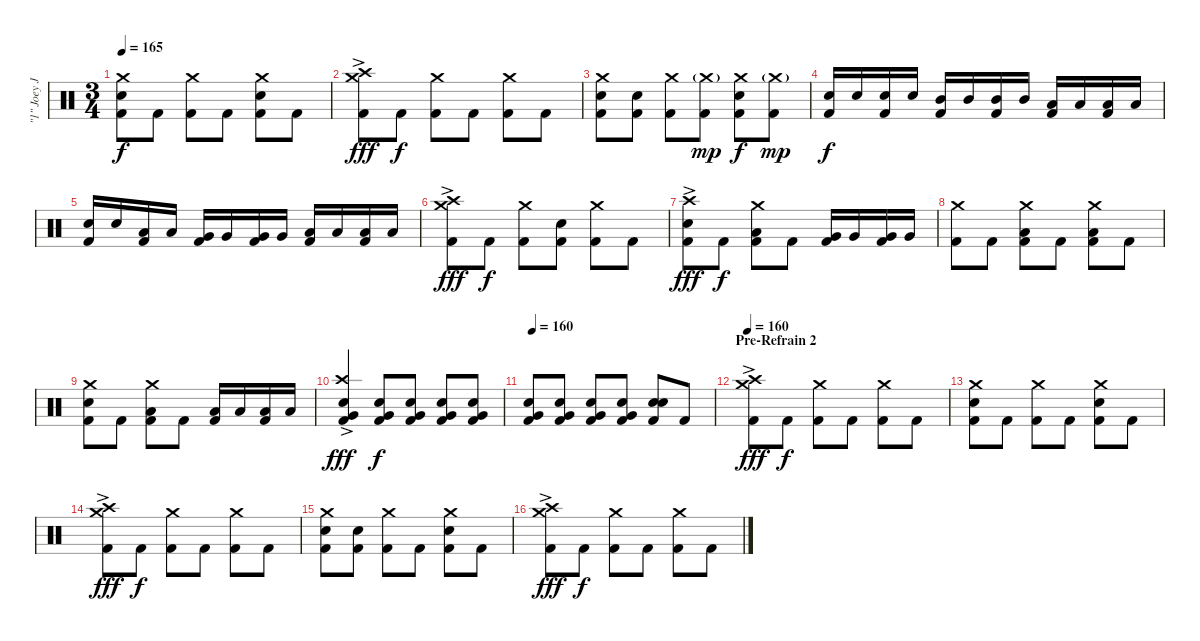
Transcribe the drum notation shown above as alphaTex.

\track ("\"1\" Joey Jordison (Drums)" "\"1\" Joey J") {instrument percussion}
\staff {score}
\articulation defaults
\ts (3 4)
\tempo 165
\clef neutral
\ks c
("Crash medium (hit)" "Electric Snare (hit)" "Kick (hit) 2").8{dy f} "Kick (hit) 2".8 ("Crash medium (hit)" "Kick (hit) 2").8 "Kick (hit) 2".8 ("Crash medium (hit)" "Electric Snare (hit)" "Kick (hit) 2").8 "Kick (hit) 2".8 |
("Crash high (hit)"{ac} "Crash medium (hit)" "Kick (hit) 2").8{dy fff} "Kick (hit) 2".8{dy f} ("Crash medium (hit)" "Kick (hit) 2").8 "Kick (hit) 2".8 ("Crash medium (hit)" "Kick (hit) 2").8 "Kick (hit) 2".8 |
("Crash medium (hit)" "Electric Snare (hit)" "Kick (hit) 2").8 ("Electric Snare (hit)" "Kick (hit) 2").8 ("Crash medium (hit)" "Kick (hit) 2").8 ("Crash medium (hit)"{g} "Kick (hit) 2").8{dy mp} ("Crash medium (hit)" "Electric Snare (hit)" "Kick (hit) 2").8{dy f} ("Crash medium (hit)"{g} "Kick (hit) 2").8{dy mp} |
("Electric Snare (hit)" "Kick (hit) 2").16{dy f} "Electric Snare (hit)".16 ("Electric Snare (hit)" "Kick (hit) 2").16 "Electric Snare (hit)".16 ("Mid Tom (hit)" "Kick (hit) 2").16 "Mid Tom (hit)".16 ("Mid Tom (hit)" "Kick (hit) 2").16 "Mid Tom (hit)".16 ("Low Tom (hit)" "Kick (hit) 2").16 "Low Tom (hit)".16 ("Low Tom (hit)" "Kick (hit) 2").16 "Low Tom (hit)".16 |
("Electric Snare (hit)" "Kick (hit) 2").16 "Electric Snare (hit)".16 ("Low Tom (hit)" "Kick (hit) 2").16 "Low Tom (hit)".16 ("Very Low Tom (hit)" "Kick (hit) 2").16 "Very Low Tom (hit)".16 ("Very Low Tom (hit)" "Kick (hit) 2").16 "Very Low Tom (hit)".16 ("Low Floor Tom (hit)" "Kick (hit) 2").16 "Low Floor Tom (hit)".16 ("Low Floor Tom (hit)" "Kick (hit) 2").16 "Low Floor Tom (hit)".16 |
("Crash high (hit)"{ac} "Crash medium (hit)" "Kick (hit) 2").8{dy fff} "Kick (hit) 2".8{dy f} ("Crash medium (hit)" "Kick (hit) 2").8 ("Electric Snare (hit)" "Kick (hit) 2").8 ("Crash medium (hit)" "Kick (hit) 2").8 "Kick (hit) 2".8 |
("Crash high (hit)"{ac} "Electric Snare (hit)" "Kick (hit) 2").8{dy fff} "Kick (hit) 2".8{dy f} ("Crash medium (hit)" "Low Tom (hit)" "Kick (hit) 2").8 "Kick (hit) 2".8 ("Very Low Tom (hit)" "Kick (hit) 2").16 "Very Low Tom (hit)".16 ("Very Low Tom (hit)" "Kick (hit) 2").16 "Very Low Tom (hit)".16 |
("Crash medium (hit)" "Kick (hit) 2").8 "Kick (hit) 2".8 ("Crash medium (hit)" "Low Floor Tom (hit)" "Kick (hit) 2").8 "Kick (hit) 2".8 ("Crash medium (hit)" "Low Floor Tom (hit)" "Kick (hit) 2").8 "Kick (hit) 2".8 |
("Crash medium (hit)" "Electric Snare (hit)" "Kick (hit) 2").8 "Kick (hit) 2".8 ("Crash medium (hit)" "Low Floor Tom (hit)" "Kick (hit) 2").8 "Kick (hit) 2".8 ("Low Floor Tom (hit)" "Kick (hit) 2").16 "Low Floor Tom (hit)".16 ("Low Floor Tom (hit)" "Kick (hit) 2").16 "Low Floor Tom (hit)".16 |
("Crash high (hit)"{ac} "Electric Snare (hit)" "Very Low Tom (hit)" "Kick (hit) 2").4{dy fff} ("Electric Snare (hit)" "Very Low Tom (hit)" "Kick (hit) 2").8{dy f} ("Electric Snare (hit)" "Very Low Tom (hit)" "Kick (hit) 2").8 ("Electric Snare (hit)" "Very Low Tom (hit)" "Kick (hit) 2").8 ("Electric Snare (hit)" "Very Low Tom (hit)" "Kick (hit) 2").8 |
\tempo 160
("Electric Snare (hit)" "Very Low Tom (hit)" "Kick (hit) 2").8 ("Electric Snare (hit)" "Very Low Tom (hit)" "Kick (hit) 2").8 ("Electric Snare (hit)" "Very Low Tom (hit)" "Kick (hit) 2").8 ("Electric Snare (hit)" "Very Low Tom (hit)" "Kick (hit) 2").8 ("Electric Snare (hit)" "Electric Snare (hit)" "Kick (hit) 2").8{bd 60} "Kick (hit) 2".8 |
\section ("" "Pre-Refrain 2")
\tempo 155
\tempo 160
("Crash high (hit)"{ac} "Crash medium (hit)" "Kick (hit) 2").8{dy fff} "Kick (hit) 2".8{dy f} ("Crash medium (hit)" "Kick (hit) 2").8 "Kick (hit) 2".8 ("Crash medium (hit)" "Kick (hit) 2").8 "Kick (hit) 2".8 |
("Crash medium (hit)" "Electric Snare (hit)" "Kick (hit) 2").8 "Kick (hit) 2".8 ("Crash medium (hit)" "Kick (hit) 2").8 "Kick (hit) 2".8 ("Crash medium (hit)" "Electric Snare (hit)" "Kick (hit) 2").8 "Kick (hit) 2".8 |
("Crash high (hit)"{ac} "Crash medium (hit)" "Kick (hit) 2").8{dy fff} "Kick (hit) 2".8{dy f} ("Crash medium (hit)" "Kick (hit) 2").8 "Kick (hit) 2".8 ("Crash medium (hit)" "Kick (hit) 2").8 "Kick (hit) 2".8 |
("Crash medium (hit)" "Electric Snare (hit)" "Kick (hit) 2").8 ("Electric Snare (hit)" "Kick (hit) 2").8 ("Crash medium (hit)" "Kick (hit) 2").8 "Kick (hit) 2".8 ("Crash medium (hit)" "Electric Snare (hit)" "Kick (hit) 2").8 "Kick (hit) 2".8 |
("Crash high (hit)"{ac} "Crash medium (hit)" "Kick (hit) 2").8{dy fff} "Kick (hit) 2".8{dy f} ("Crash medium (hit)" "Kick (hit) 2").8 "Kick (hit) 2".8 ("Crash medium (hit)" "Kick (hit) 2").8 "Kick (hit) 2".8
